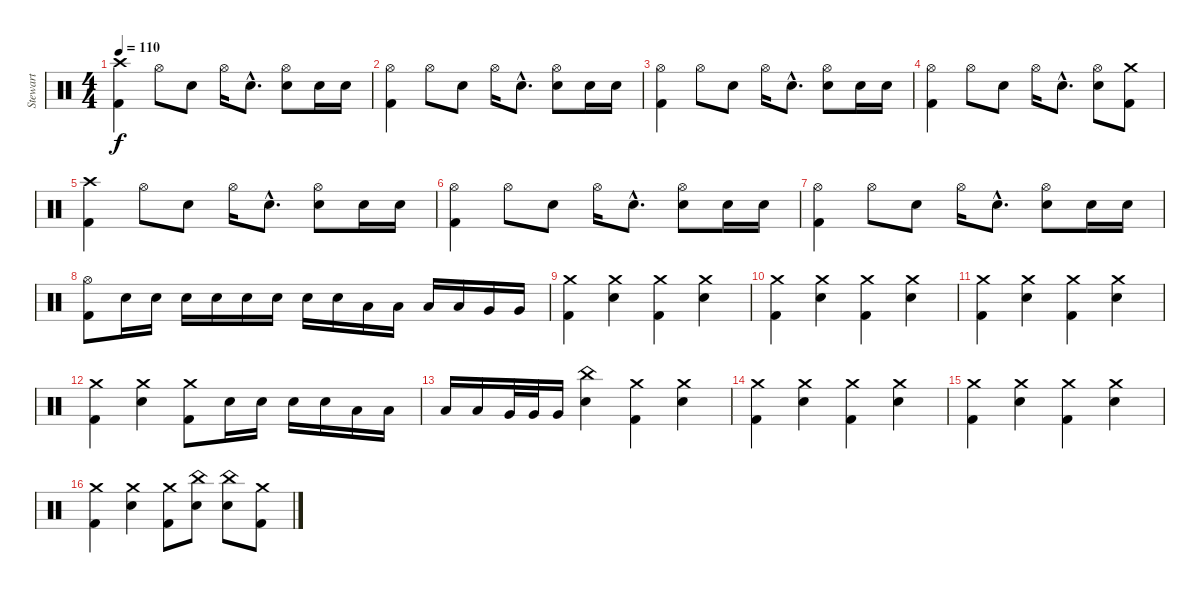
\track ("Stewart" "Stewart") {instrument percussion}
\staff {score}
\articulation defaults
\ts (4 4)
\tempo 110
\clef neutral
\ks c
("Crash high (hit)" "Kick (hit) 2").4{dy f} "Hi-Hat (open)".8 "Electric Snare (hit)".8 "Hi-Hat (open)".16 "Electric Snare (hit)"{hac}.8{d} ("Hi-Hat (open)" "Electric Snare (hit)").8 "Electric Snare (hit)".16 "Electric Snare (hit)".16 |
("Hi-Hat (open)" "Kick (hit) 2").4 "Hi-Hat (open)".8 "Electric Snare (hit)".8 "Hi-Hat (open)".16 "Electric Snare (hit)"{hac}.8{d} ("Hi-Hat (open)" "Electric Snare (hit)").8 "Electric Snare (hit)".16 "Electric Snare (hit)".16 |
("Hi-Hat (open)" "Kick (hit) 2").4 "Hi-Hat (open)".8 "Electric Snare (hit)".8 "Hi-Hat (open)".16 "Electric Snare (hit)"{hac}.8{d} ("Hi-Hat (open)" "Electric Snare (hit)").8 "Electric Snare (hit)".16 "Electric Snare (hit)".16 |
("Hi-Hat (open)" "Kick (hit) 2").4 "Hi-Hat (open)".8 "Electric Snare (hit)".8 "Hi-Hat (open)".16 "Electric Snare (hit)"{hac}.8{d} ("Hi-Hat (open)" "Electric Snare (hit)").8 ("Crash medium (hit)" "Kick (hit) 2").8 |
("Crash high (hit)" "Kick (hit) 2").4 "Hi-Hat (open)".8 "Electric Snare (hit)".8 "Hi-Hat (open)".16 "Electric Snare (hit)"{hac}.8{d} ("Hi-Hat (open)" "Electric Snare (hit)").8 "Electric Snare (hit)".16 "Electric Snare (hit)".16 |
("Hi-Hat (open)" "Kick (hit) 2").4 "Hi-Hat (open)".8 "Electric Snare (hit)".8 "Hi-Hat (open)".16 "Electric Snare (hit)"{hac}.8{d} ("Hi-Hat (open)" "Electric Snare (hit)").8 "Electric Snare (hit)".16 "Electric Snare (hit)".16 |
("Hi-Hat (open)" "Kick (hit) 2").4 "Hi-Hat (open)".8 "Electric Snare (hit)".8 "Hi-Hat (open)".16 "Electric Snare (hit)"{hac}.8{d} ("Hi-Hat (open)" "Electric Snare (hit)").8 "Electric Snare (hit)".16 "Electric Snare (hit)".16 |
("Hi-Hat (open)" "Kick (hit) 2").8 "Electric Snare (hit)".16 "Electric Snare (hit)".16 "Electric Snare (hit)".16 "Electric Snare (hit)".16 "Electric Snare (hit)".16 "Electric Snare (hit)".16 "Electric Snare (hit)".16 "Electric Snare (hit)".16 "Low Tom (hit)".16 "Low Tom (hit)".16 "Low Tom (hit)".16 "Low Tom (hit)".16 "Very Low Tom (hit)".16 "Very Low Tom (hit)".16 |
("Crash medium (hit)" "Kick (hit) 2").4 ("Crash medium (hit)" "Electric Snare (hit)").4 ("Crash medium (hit)" "Kick (hit) 2").4 ("Crash medium (hit)" "Electric Snare (hit)").4 |
("Crash medium (hit)" "Kick (hit) 2").4 ("Crash medium (hit)" "Electric Snare (hit)").4 ("Crash medium (hit)" "Kick (hit) 2").4 ("Crash medium (hit)" "Electric Snare (hit)").4 |
("Crash medium (hit)" "Kick (hit) 2").4 ("Crash medium (hit)" "Electric Snare (hit)").4 ("Crash medium (hit)" "Kick (hit) 2").4 ("Crash medium (hit)" "Electric Snare (hit)").4 |
("Crash medium (hit)" "Kick (hit) 2").4 ("Crash medium (hit)" "Electric Snare (hit)").4 ("Crash medium (hit)" "Kick (hit) 2").8 "Electric Snare (hit)".16 "Electric Snare (hit)".16 "Electric Snare (hit)".16 "Electric Snare (hit)".16 "Low Tom (hit)".16 "Low Tom (hit)".16 |
"Low Tom (hit)".16 "Low Tom (hit)".16 "Very Low Tom (hit)".32 "Very Low Tom (hit)".32 "Very Low Tom (hit)".16 ("China (hit)" "Electric Snare (hit)").4 ("Crash medium (hit)" "Kick (hit) 2").4 ("Crash medium (hit)" "Electric Snare (hit)").4 |
("Crash medium (hit)" "Kick (hit) 2").4 ("Crash medium (hit)" "Electric Snare (hit)").4 ("Crash medium (hit)" "Kick (hit) 2").4 ("Crash medium (hit)" "Electric Snare (hit)").4 |
("Crash medium (hit)" "Kick (hit) 2").4 ("Crash medium (hit)" "Electric Snare (hit)").4 ("Crash medium (hit)" "Kick (hit) 2").4 ("Crash medium (hit)" "Electric Snare (hit)").4 |
("Crash medium (hit)" "Kick (hit) 2").4 ("Crash medium (hit)" "Electric Snare (hit)").4 ("Crash medium (hit)" "Kick (hit) 2").8 ("China (hit)" "Electric Snare (hit)").8 ("China (hit)" "Electric Snare (hit)").8 ("Crash medium (hit)" "Kick (hit) 2").8
